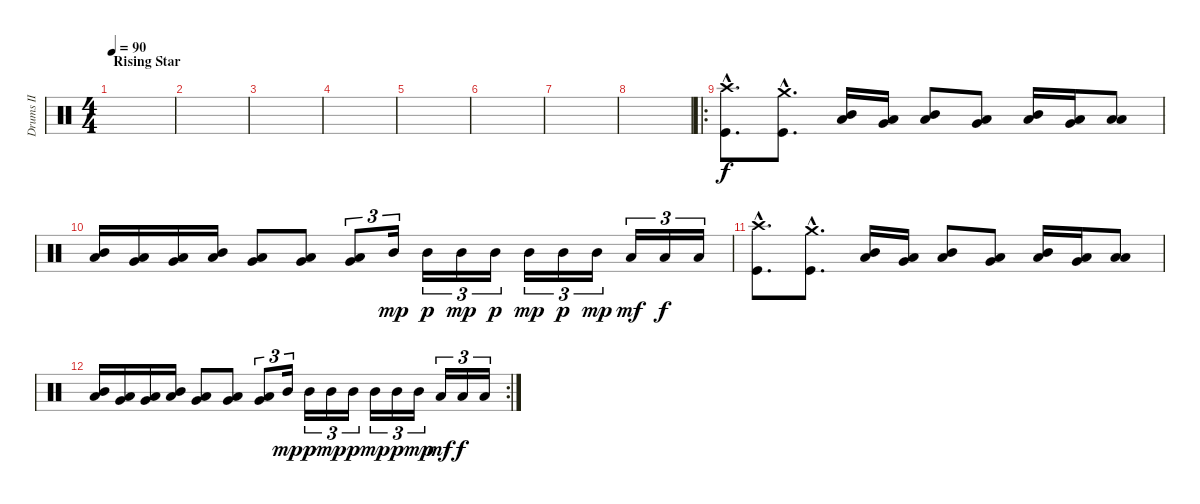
\track ("Drums II" "Drums II") {instrument percussion}
\staff {score}
\articulation defaults
\ts (4 4)
\section ("" "Rising Star")
\tempo 90
\clef neutral
\ks c
|
|
|
|
|
|
|
|
\ro
("Crash high (hit)"{hac} "Kick (hit)"{hac}).8{d} ("Crash medium (hit)"{hac} "Kick (hit)"{hac}).8{d} ("Low Tom (hit)" "Mid Tom (hit)").16 ("Low Tom (hit)" "Very Low Tom (hit)").16 ("Low Tom (hit)" "Mid Tom (hit)").8 ("Low Floor Tom (hit)" "Very Low Tom (hit)").8 ("Low Tom (hit)" "Mid Tom (hit)").16 ("Low Floor Tom (hit)" "Very Low Tom (hit)").16 ("Low Floor Tom (hit)" "Low Floor Tom (hit)").8 |
("Low Tom (hit)" "Mid Tom (hit)").16 ("Low Floor Tom (hit)" "Very Low Tom (hit)").16 ("Low Floor Tom (hit)" "Very Low Tom (hit)").16 ("Low Tom (hit)" "Mid Tom (hit)").16 ("Low Floor Tom (hit)" "Very Low Tom (hit)").8 ("Low Floor Tom (hit)" "Very Low Tom (hit)").8 ("Very Low Tom (hit)" "Low Floor Tom (hit)").8{tu (3 2)} "Mid Tom (hit)".16{tu (3 2) dy mp} "Mid Tom (hit)".16{tu (3 2) dy p} "Mid Tom (hit)".16{tu (3 2) dy mp} "Mid Tom (hit)".16{tu (3 2) dy p} "Mid Tom (hit)".16{tu (3 2) dy mp} "Mid Tom (hit)".16{tu (3 2) dy p} "Mid Tom (hit)".16{tu (3 2) dy mp} "Low Tom (hit)".16{tu (3 2) dy mf} "Low Tom (hit)".16{tu (3 2) dy f} "Low Tom (hit)".16{tu (3 2)} |
("Crash high (hit)"{hac} "Kick (hit)"{hac}).8{d} ("Crash medium (hit)"{hac} "Kick (hit)"{hac}).8{d} ("Low Tom (hit)" "Mid Tom (hit)").16 ("Low Tom (hit)" "Very Low Tom (hit)").16 ("Low Tom (hit)" "Mid Tom (hit)").8 ("Low Floor Tom (hit)" "Very Low Tom (hit)").8 ("Low Tom (hit)" "Mid Tom (hit)").16 ("Low Floor Tom (hit)" "Very Low Tom (hit)").16 ("Low Floor Tom (hit)" "Low Floor Tom (hit)").8 |
\rc 2
("Low Tom (hit)" "Mid Tom (hit)").16 ("Low Floor Tom (hit)" "Very Low Tom (hit)").16 ("Low Floor Tom (hit)" "Very Low Tom (hit)").16 ("Low Tom (hit)" "Mid Tom (hit)").16 ("Low Floor Tom (hit)" "Very Low Tom (hit)").8 ("Low Floor Tom (hit)" "Very Low Tom (hit)").8 ("Very Low Tom (hit)" "Low Floor Tom (hit)").8{tu (3 2)} "Mid Tom (hit)".16{tu (3 2) dy mp} "Mid Tom (hit)".16{tu (3 2) dy p} "Mid Tom (hit)".16{tu (3 2) dy mp} "Mid Tom (hit)".16{tu (3 2) dy p} "Mid Tom (hit)".16{tu (3 2) dy mp} "Mid Tom (hit)".16{tu (3 2) dy p} "Mid Tom (hit)".16{tu (3 2) dy mp} "Low Tom (hit)".16{tu (3 2) dy mf} "Low Tom (hit)".16{tu (3 2) dy f} "Low Tom (hit)".16{tu (3 2)}
